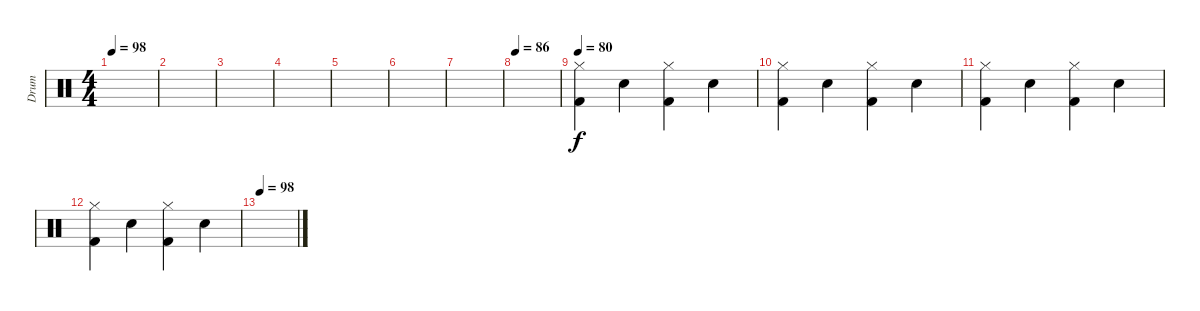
\track ("Drum" "Drum") {instrument percussion}
\staff {score}
\articulation defaults
\ts (4 4)
\tempo 98
\clef neutral
\ks c
|
|
|
|
|
|
|
\tempo 86
|
\tempo 80
("Hi-Hat (closed)" "Kick (hit) 2").4 "Electric Snare (hit)".4 ("Hi-Hat (closed)" "Kick (hit) 2").4 "Electric Snare (hit)".4 |
("Hi-Hat (closed)" "Kick (hit) 2").4 "Electric Snare (hit)".4 ("Hi-Hat (closed)" "Kick (hit) 2").4 "Electric Snare (hit)".4 |
("Hi-Hat (closed)" "Kick (hit) 2").4 "Electric Snare (hit)".4 ("Hi-Hat (closed)" "Kick (hit) 2").4 "Electric Snare (hit)".4 |
("Hi-Hat (closed)" "Kick (hit) 2").4 "Electric Snare (hit)".4 ("Hi-Hat (closed)" "Kick (hit) 2").4 "Electric Snare (hit)".4 |
\tempo 98
